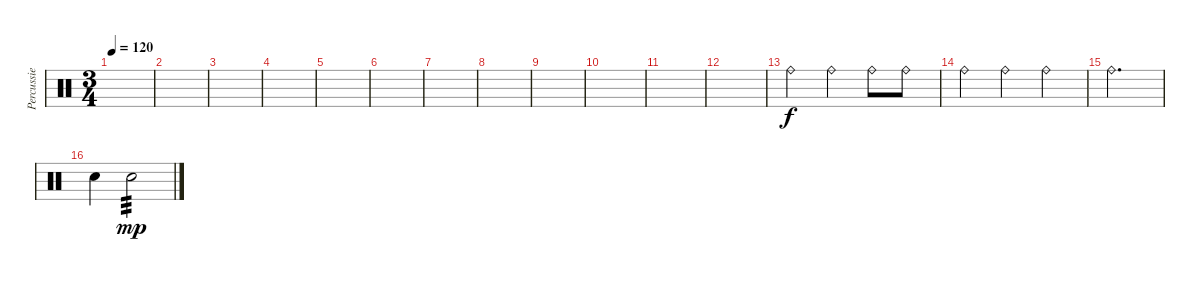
\track ("Percussie" "Percussie") {instrument percussion}
\staff {score}
\articulation defaults
\ts (3 4)
\tempo 120
\clef neutral
\ks c
|
|
|
|
|
|
|
|
|
|
|
|
"Ride (bell)".4 "Ride (bell)".4 "Ride (bell)".8 "Ride (bell)".8 |
"Ride (bell)".4 "Ride (bell)".4 "Ride (bell)".4 |
"Ride (bell)".2{d} |
"Electric Snare (hit)".4 "Electric Snare (hit)".2{tp 3 dy mp}
